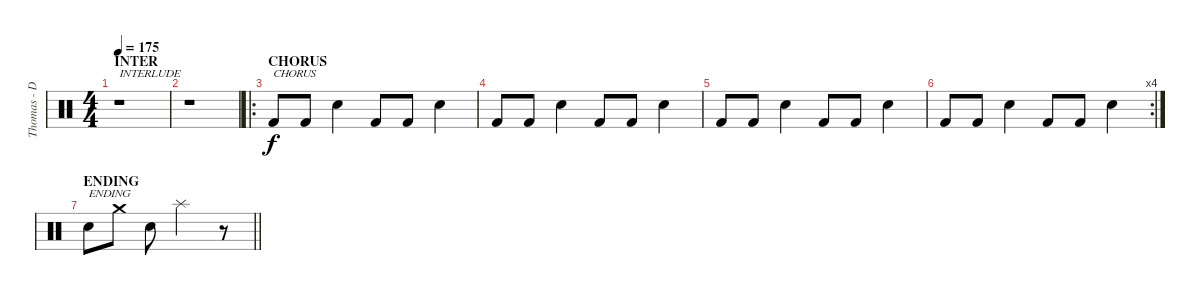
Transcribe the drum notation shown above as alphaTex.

\track ("Thomas - Drums" "Thomas - D") {instrument percussion}
\staff {score}
\articulation defaults
\ts (4 4)
\section ("" "INTER")
\tempo 175
\clef neutral
\ks c
r.1{txt "INTERLUDE" dy f} |
r.1 |
\ro
\section ("" "CHORUS")
"Kick (hit) 2".8{txt "CHORUS"} "Kick (hit) 2".8 "Electric Snare (hit)".4 "Kick (hit) 2".8 "Kick (hit) 2".8 "Electric Snare (hit)".4 |
"Kick (hit) 2".8 "Kick (hit) 2".8 "Electric Snare (hit)".4 "Kick (hit) 2".8 "Kick (hit) 2".8 "Electric Snare (hit)".4 |
"Kick (hit) 2".8 "Kick (hit) 2".8 "Electric Snare (hit)".4 "Kick (hit) 2".8 "Kick (hit) 2".8 "Electric Snare (hit)".4 |
\rc 4 "Kick (hit) 2".8 "Kick (hit) 2".8 "Electric Snare (hit)".4 "Kick (hit) 2".8 "Kick (hit) 2".8 "Electric Snare (hit)".4
|
\section ("" "ENDING")
\barLineRight lightlight "Electric Snare (hit)".8{txt "ENDING"} "Crash medium (hit)".8 "Electric Snare (hit)".8 "Splash (hit)".2
r.8
